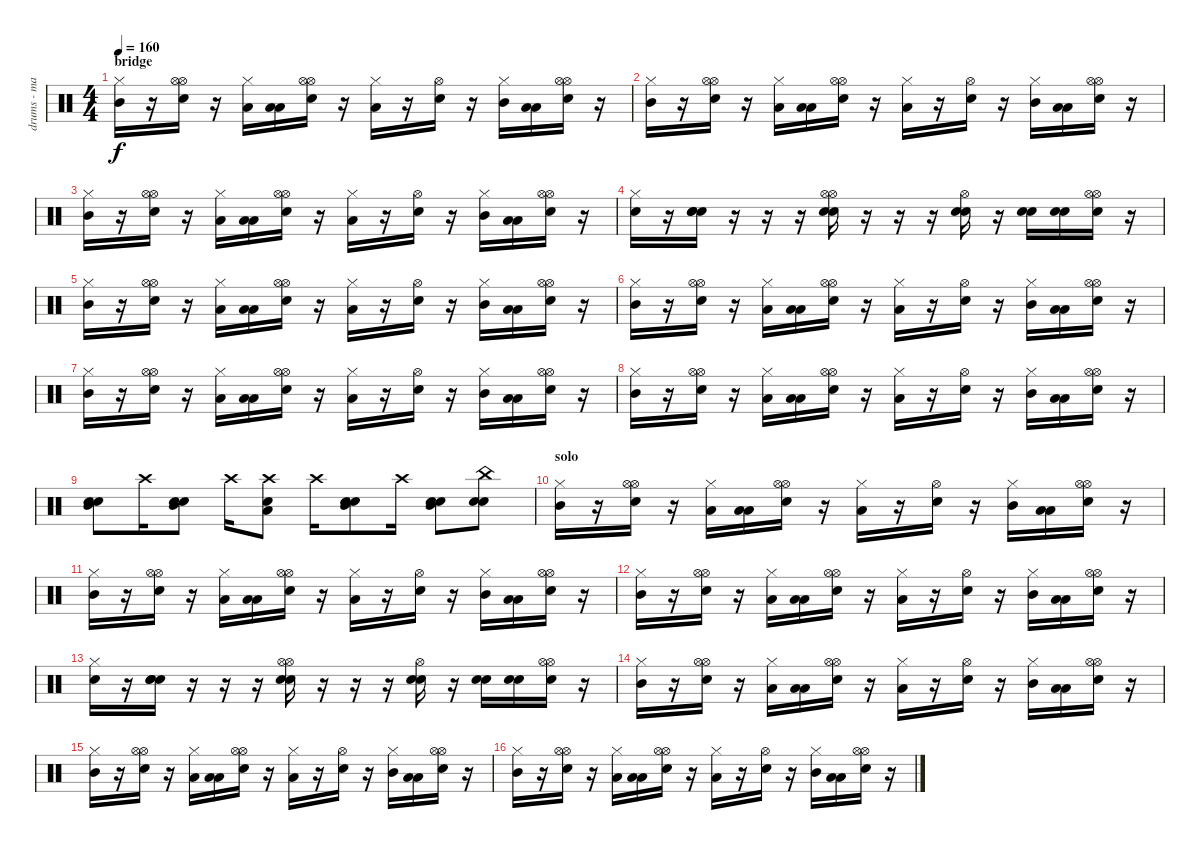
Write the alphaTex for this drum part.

\track ("drums - martin pelc" "drums - ma") {instrument percussion}
\staff {score}
\articulation defaults
\ts (4 4)
\section ("" "bridge")
\tempo 160
\clef neutral
\ks c
("Hi-Hat (closed)" "Mid Tom (hit)").16{dy f} r.16 ("Snare (hit) 2" "Hi-Hat (open)" "Hi-Hat (open)").16 r.16 ("Hi-Hat (closed)" "Low Tom (hit)").16 ("Low Tom (hit)" "Low Tom (hit)").16 ("Snare (hit) 2" "Hi-Hat (open)" "Hi-Hat (open)").16 r.16 ("Hi-Hat (closed)" "Low Tom (hit)").16 r.16 ("Snare (hit) 2" "Hi-Hat (open)").16 r.16 ("Hi-Hat (closed)" "Mid Tom (hit)").16 ("Low Tom (hit)" "Low Tom (hit)").16 ("Snare (hit) 2" "Hi-Hat (open)" "Hi-Hat (open)").16 r.16 |
("Hi-Hat (closed)" "Mid Tom (hit)").16 r.16 ("Snare (hit) 2" "Hi-Hat (open)" "Hi-Hat (open)").16 r.16 ("Hi-Hat (closed)" "Low Tom (hit)").16 ("Low Tom (hit)" "Low Tom (hit)").16 ("Snare (hit) 2" "Hi-Hat (open)" "Hi-Hat (open)").16 r.16 ("Hi-Hat (closed)" "Low Tom (hit)").16 r.16 ("Snare (hit) 2" "Hi-Hat (open)").16 r.16 ("Hi-Hat (closed)" "Mid Tom (hit)").16 ("Low Tom (hit)" "Low Tom (hit)").16 ("Snare (hit) 2" "Hi-Hat (open)" "Hi-Hat (open)").16 r.16 |
("Hi-Hat (closed)" "Mid Tom (hit)").16 r.16 ("Snare (hit) 2" "Hi-Hat (open)" "Hi-Hat (open)").16 r.16 ("Hi-Hat (closed)" "Low Tom (hit)").16 ("Low Tom (hit)" "Low Tom (hit)").16 ("Snare (hit) 2" "Hi-Hat (open)" "Hi-Hat (open)").16 r.16 ("Hi-Hat (closed)" "Low Tom (hit)").16 r.16 ("Snare (hit) 2" "Hi-Hat (open)").16 r.16 ("Hi-Hat (closed)" "Mid Tom (hit)").16 ("Low Tom (hit)" "Low Tom (hit)").16 ("Snare (hit) 2" "Hi-Hat (open)" "Hi-Hat (open)").16 r.16 |
("Hi-Hat (closed)" "Snare (hit) 2").16 r.16 ("Snare (hit) 2" "Snare (hit) 2" "Snare (hit) 2").16 r.16 r.16 r.16 ("Snare (hit) 2" "Hi-Hat (open)" "Hi-Hat (open)" "Snare (hit) 2").16 r.16 r.16 r.16 ("Snare (hit) 2" "Hi-Hat (open)" "Snare (hit) 2").16 r.16 ("Snare (hit) 2" "Snare (hit) 2").16 ("Snare (hit) 2" "Snare (hit) 2").16 ("Snare (hit) 2" "Hi-Hat (open)" "Hi-Hat (open)").16 r.16 |
("Hi-Hat (closed)" "Mid Tom (hit)").16 r.16 ("Snare (hit) 2" "Hi-Hat (open)" "Hi-Hat (open)").16 r.16 ("Hi-Hat (closed)" "Low Tom (hit)").16 ("Low Tom (hit)" "Low Tom (hit)").16 ("Snare (hit) 2" "Hi-Hat (open)" "Hi-Hat (open)").16 r.16 ("Hi-Hat (closed)" "Low Tom (hit)").16 r.16 ("Snare (hit) 2" "Hi-Hat (open)").16 r.16 ("Hi-Hat (closed)" "Mid Tom (hit)").16 ("Low Tom (hit)" "Low Tom (hit)").16 ("Snare (hit) 2" "Hi-Hat (open)" "Hi-Hat (open)").16 r.16 |
("Hi-Hat (closed)" "Mid Tom (hit)").16 r.16 ("Snare (hit) 2" "Hi-Hat (open)" "Hi-Hat (open)").16 r.16 ("Hi-Hat (closed)" "Low Tom (hit)").16 ("Low Tom (hit)" "Low Tom (hit)").16 ("Snare (hit) 2" "Hi-Hat (open)" "Hi-Hat (open)").16 r.16 ("Hi-Hat (closed)" "Low Tom (hit)").16 r.16 ("Snare (hit) 2" "Hi-Hat (open)").16 r.16 ("Hi-Hat (closed)" "Mid Tom (hit)").16 ("Low Tom (hit)" "Low Tom (hit)").16 ("Snare (hit) 2" "Hi-Hat (open)" "Hi-Hat (open)").16 r.16 |
("Hi-Hat (closed)" "Mid Tom (hit)").16 r.16 ("Snare (hit) 2" "Hi-Hat (open)" "Hi-Hat (open)").16 r.16 ("Hi-Hat (closed)" "Low Tom (hit)").16 ("Low Tom (hit)" "Low Tom (hit)").16 ("Snare (hit) 2" "Hi-Hat (open)" "Hi-Hat (open)").16 r.16 ("Hi-Hat (closed)" "Low Tom (hit)").16 r.16 ("Snare (hit) 2" "Hi-Hat (open)").16 r.16 ("Hi-Hat (closed)" "Mid Tom (hit)").16 ("Low Tom (hit)" "Low Tom (hit)").16 ("Snare (hit) 2" "Hi-Hat (open)" "Hi-Hat (open)").16 r.16 |
("Hi-Hat (closed)" "Mid Tom (hit)").16 r.16 ("Snare (hit) 2" "Hi-Hat (open)" "Hi-Hat (open)").16 r.16 ("Hi-Hat (closed)" "Low Tom (hit)").16 ("Low Tom (hit)" "Low Tom (hit)").16 ("Snare (hit) 2" "Hi-Hat (open)" "Hi-Hat (open)").16 r.16 ("Hi-Hat (closed)" "Low Tom (hit)").16 r.16 ("Snare (hit) 2" "Hi-Hat (open)").16 r.16 ("Hi-Hat (closed)" "Mid Tom (hit)").16 ("Low Tom (hit)" "Low Tom (hit)").16 ("Snare (hit) 2" "Hi-Hat (open)" "Hi-Hat (open)").16 r.16 |
("Snare (hit) 2" "Snare (hit) 2" "Mid Tom (hit)").8 "Crash high (hit)".16 ("Snare (hit) 2" "Snare (hit) 2" "Mid Tom (hit)").8 "Crash high (hit)".16 ("Crash high (hit)" "Snare (hit) 2" "Low Floor Tom (hit)").8 "Crash high (hit)".16 ("Snare (hit) 2" "Snare (hit) 2" "Mid Tom (hit)").8 "Crash high (hit)".16 ("Snare (hit) 2" "Snare (hit) 2" "Mid Tom (hit)").8 ("Snare (hit) 2" "Snare (hit) 2" "China (hit)").8 |
\section ("" "solo")
("Hi-Hat (closed)" "Mid Tom (hit)").16 r.16 ("Snare (hit) 2" "Hi-Hat (open)" "Hi-Hat (open)").16 r.16 ("Hi-Hat (closed)" "Low Tom (hit)").16 ("Low Tom (hit)" "Low Tom (hit)").16 ("Snare (hit) 2" "Hi-Hat (open)" "Hi-Hat (open)").16 r.16 ("Hi-Hat (closed)" "Low Tom (hit)").16 r.16 ("Snare (hit) 2" "Hi-Hat (open)").16 r.16 ("Hi-Hat (closed)" "Mid Tom (hit)").16 ("Low Tom (hit)" "Low Tom (hit)").16 ("Snare (hit) 2" "Hi-Hat (open)" "Hi-Hat (open)").16 r.16 |
("Hi-Hat (closed)" "Mid Tom (hit)").16 r.16 ("Snare (hit) 2" "Hi-Hat (open)" "Hi-Hat (open)").16 r.16 ("Hi-Hat (closed)" "Low Tom (hit)").16 ("Low Tom (hit)" "Low Tom (hit)").16 ("Snare (hit) 2" "Hi-Hat (open)" "Hi-Hat (open)").16 r.16 ("Hi-Hat (closed)" "Low Tom (hit)").16 r.16 ("Snare (hit) 2" "Hi-Hat (open)").16 r.16 ("Hi-Hat (closed)" "Mid Tom (hit)").16 ("Low Tom (hit)" "Low Tom (hit)").16 ("Snare (hit) 2" "Hi-Hat (open)" "Hi-Hat (open)").16 r.16 |
("Hi-Hat (closed)" "Mid Tom (hit)").16 r.16 ("Snare (hit) 2" "Hi-Hat (open)" "Hi-Hat (open)").16 r.16 ("Hi-Hat (closed)" "Low Tom (hit)").16 ("Low Tom (hit)" "Low Tom (hit)").16 ("Snare (hit) 2" "Hi-Hat (open)" "Hi-Hat (open)").16 r.16 ("Hi-Hat (closed)" "Low Tom (hit)").16 r.16 ("Snare (hit) 2" "Hi-Hat (open)").16 r.16 ("Hi-Hat (closed)" "Mid Tom (hit)").16 ("Low Tom (hit)" "Low Tom (hit)").16 ("Snare (hit) 2" "Hi-Hat (open)" "Hi-Hat (open)").16 r.16 |
("Hi-Hat (closed)" "Snare (hit) 2").16 r.16 ("Snare (hit) 2" "Snare (hit) 2" "Snare (hit) 2").16 r.16 r.16 r.16 ("Snare (hit) 2" "Hi-Hat (open)" "Hi-Hat (open)" "Snare (hit) 2").16 r.16 r.16 r.16 ("Snare (hit) 2" "Hi-Hat (open)" "Snare (hit) 2").16 r.16 ("Snare (hit) 2" "Snare (hit) 2").16 ("Snare (hit) 2" "Snare (hit) 2").16 ("Snare (hit) 2" "Hi-Hat (open)" "Hi-Hat (open)").16 r.16 |
("Hi-Hat (closed)" "Mid Tom (hit)").16 r.16 ("Snare (hit) 2" "Hi-Hat (open)" "Hi-Hat (open)").16 r.16 ("Hi-Hat (closed)" "Low Tom (hit)").16 ("Low Tom (hit)" "Low Tom (hit)").16 ("Snare (hit) 2" "Hi-Hat (open)" "Hi-Hat (open)").16 r.16 ("Hi-Hat (closed)" "Low Tom (hit)").16 r.16 ("Snare (hit) 2" "Hi-Hat (open)").16 r.16 ("Hi-Hat (closed)" "Mid Tom (hit)").16 ("Low Tom (hit)" "Low Tom (hit)").16 ("Snare (hit) 2" "Hi-Hat (open)" "Hi-Hat (open)").16 r.16 |
("Hi-Hat (closed)" "Mid Tom (hit)").16 r.16 ("Snare (hit) 2" "Hi-Hat (open)" "Hi-Hat (open)").16 r.16 ("Hi-Hat (closed)" "Low Tom (hit)").16 ("Low Tom (hit)" "Low Tom (hit)").16 ("Snare (hit) 2" "Hi-Hat (open)" "Hi-Hat (open)").16 r.16 ("Hi-Hat (closed)" "Low Tom (hit)").16 r.16 ("Snare (hit) 2" "Hi-Hat (open)").16 r.16 ("Hi-Hat (closed)" "Mid Tom (hit)").16 ("Low Tom (hit)" "Low Tom (hit)").16 ("Snare (hit) 2" "Hi-Hat (open)" "Hi-Hat (open)").16 r.16 |
("Hi-Hat (closed)" "Mid Tom (hit)").16 r.16 ("Snare (hit) 2" "Hi-Hat (open)" "Hi-Hat (open)").16 r.16 ("Hi-Hat (closed)" "Low Tom (hit)").16 ("Low Tom (hit)" "Low Tom (hit)").16 ("Snare (hit) 2" "Hi-Hat (open)" "Hi-Hat (open)").16 r.16 ("Hi-Hat (closed)" "Low Tom (hit)").16 r.16 ("Snare (hit) 2" "Hi-Hat (open)").16 r.16 ("Hi-Hat (closed)" "Mid Tom (hit)").16 ("Low Tom (hit)" "Low Tom (hit)").16 ("Snare (hit) 2" "Hi-Hat (open)" "Hi-Hat (open)").16 r.16
